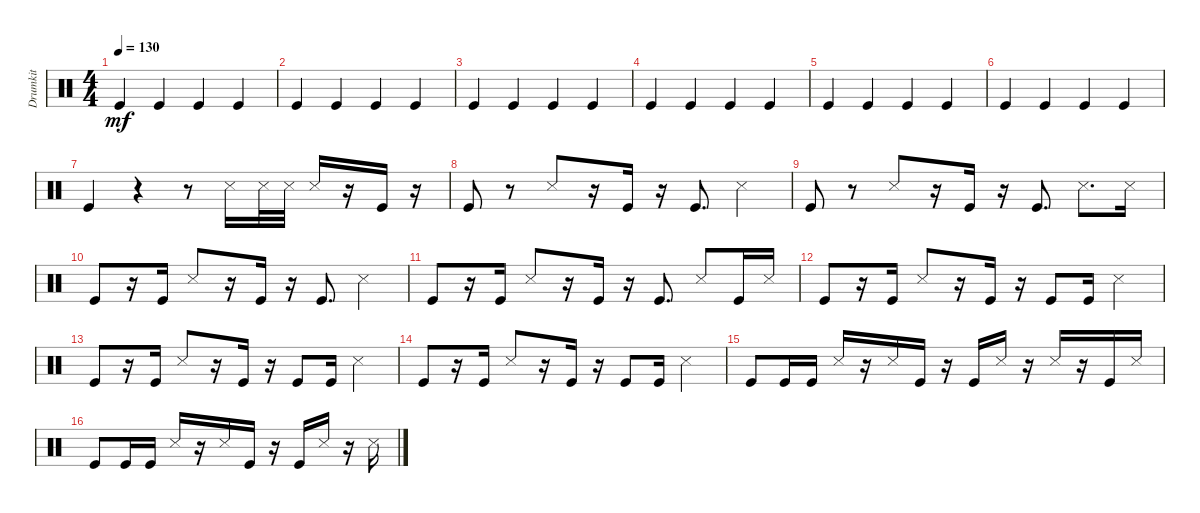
\track ("Drumkit" "Drumkit") {instrument percussion}
\staff {score}
\articulation defaults
\ts (4 4)
\tempo 130
\clef neutral
\ks c "Kick (hit)".4{dy mf} "Kick (hit)".4 "Kick (hit)".4 "Kick (hit)".4
|
"Kick (hit)".4 "Kick (hit)".4 "Kick (hit)".4 "Kick (hit)".4 |
"Kick (hit)".4 "Kick (hit)".4 "Kick (hit)".4 "Kick (hit)".4 |
"Kick (hit)".4 "Kick (hit)".4 "Kick (hit)".4 "Kick (hit)".4 |
"Kick (hit)".4 "Kick (hit)".4 "Kick (hit)".4 "Kick (hit)".4 |
"Kick (hit)".4 "Kick (hit)".4 "Kick (hit)".4 "Kick (hit)".4 |
"Kick (hit)".4 r.4 r.8 "Snare (side stick) 3".16 "Snare (side stick) 3".32 "Snare (side stick) 3".32 "Snare (side stick) 3".16 r.16 "Kick (hit)".16 r.16 |
"Kick (hit)".8 r.8 "Snare (side stick) 3".8 r.16 "Kick (hit)".16 r.16 "Kick (hit)".8{d} "Snare (side stick) 3".4 |
"Kick (hit)".8 r.8 "Snare (side stick) 3".8 r.16 "Kick (hit)".16 r.16 "Kick (hit)".8{d} "Snare (side stick) 3".8{d} "Snare (side stick) 3".16 |
"Kick (hit)".8 r.16 "Kick (hit)".16 "Snare (side stick) 3".8 r.16 "Kick (hit)".16 r.16 "Kick (hit)".8{d} "Snare (side stick) 3".4 |
"Kick (hit)".8 r.16 "Kick (hit)".16 "Snare (side stick) 3".8 r.16 "Kick (hit)".16 r.16 "Kick (hit)".8{d} "Snare (side stick) 3".8 "Kick (hit)".16 "Snare (side stick) 3".16 |
"Kick (hit)".8 r.16 "Kick (hit)".16 "Snare (side stick) 3".8 r.16 "Kick (hit)".16 r.16 "Kick (hit)".8 "Kick (hit)".16 "Snare (side stick) 3".4 |
"Kick (hit)".8 r.16 "Kick (hit)".16 "Snare (side stick) 3".8 r.16 "Kick (hit)".16 r.16 "Kick (hit)".8 "Kick (hit)".16 "Snare (side stick) 3".4 |
"Kick (hit)".8 r.16 "Kick (hit)".16 "Snare (side stick) 3".8 r.16 "Kick (hit)".16 r.16 "Kick (hit)".8 "Kick (hit)".16 "Snare (side stick) 3".4 |
"Kick (hit)".8 "Kick (hit)".16 "Kick (hit)".16 "Snare (side stick) 3".16 r.16 "Snare (side stick) 3".16 "Kick (hit)".16 r.16 "Kick (hit)".16 "Snare (side stick) 3".16 r.16 "Snare (side stick) 3".16 r.16 "Kick (hit)".16 "Snare (side stick) 3".16 |
"Kick (hit)".8 "Kick (hit)".16 "Kick (hit)".16 "Snare (side stick) 3".16 r.16 "Snare (side stick) 3".16 "Kick (hit)".16 r.16 "Kick (hit)".16 "Snare (side stick) 3".16 r.16 "Snare (side stick) 3".16
